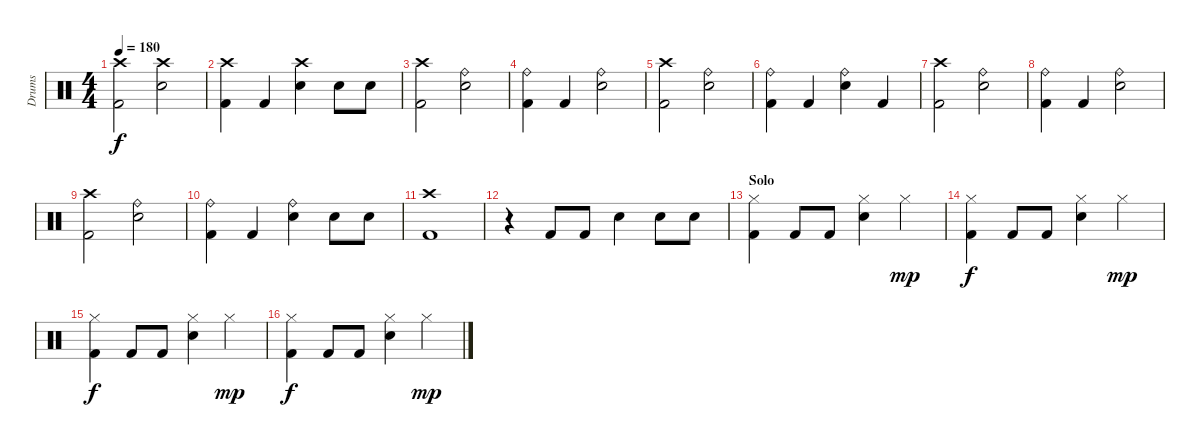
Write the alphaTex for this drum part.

\track ("Drums" "Drums") {instrument percussion}
\staff {score}
\articulation defaults
\ts (4 4)
\tempo 180
\clef neutral
\ks c
("Crash high (hit)" "Kick (hit) 2").2{dy f} ("Crash high (hit)" "Snare (hit) 2").2 |
("Crash high (hit)" "Kick (hit) 2").4 "Kick (hit) 2".4 ("Crash high (hit)" "Snare (hit) 2").4 "Snare (hit) 2".8 "Snare (hit) 2".8 |
("Crash high (hit)" "Kick (hit) 2").2 ("Ride (bell)" "Snare (hit) 2").2 |
("Ride (bell)" "Kick (hit) 2").4 "Kick (hit) 2".4 ("Ride (bell)" "Snare (hit) 2").2 |
("Crash high (hit)" "Kick (hit) 2").2 ("Ride (bell)" "Snare (hit) 2").2 |
("Ride (bell)" "Kick (hit) 2").4 "Kick (hit) 2".4 ("Ride (bell)" "Snare (hit) 2").4 "Kick (hit) 2".4 |
("Crash high (hit)" "Kick (hit) 2").2 ("Ride (bell)" "Snare (hit) 2").2 |
("Ride (bell)" "Kick (hit) 2").4 "Kick (hit) 2".4 ("Ride (bell)" "Snare (hit) 2").2 |
("Crash high (hit)" "Kick (hit) 2").2 ("Ride (bell)" "Snare (hit) 2").2 |
("Ride (bell)" "Kick (hit) 2").4 "Kick (hit) 2".4 ("Ride (bell)" "Snare (hit) 2").4 "Snare (hit) 2".8 "Snare (hit) 2".8 |
("Crash high (hit)" "Kick (hit) 2").1 |
r.4 "Kick (hit) 2".8 "Kick (hit) 2".8 "Snare (hit) 2".4 "Snare (hit) 2".8 "Snare (hit) 2".8 |
\section ("" "Solo")
("Hi-Hat (closed)" "Kick (hit) 2").4 "Kick (hit) 2".8 "Kick (hit) 2".8 ("Hi-Hat (closed)" "Snare (hit) 2").4 "Hi-Hat (closed)".4{dy mp} |
("Hi-Hat (closed)" "Kick (hit) 2").4{dy f} "Kick (hit) 2".8 "Kick (hit) 2".8 ("Hi-Hat (closed)" "Snare (hit) 2").4 "Hi-Hat (closed)".4{dy mp} |
("Hi-Hat (closed)" "Kick (hit) 2").4{dy f} "Kick (hit) 2".8 "Kick (hit) 2".8 ("Hi-Hat (closed)" "Snare (hit) 2").4 "Hi-Hat (closed)".4{dy mp} |
("Hi-Hat (closed)" "Kick (hit) 2").4{dy f} "Kick (hit) 2".8 "Kick (hit) 2".8 ("Hi-Hat (closed)" "Snare (hit) 2").4 "Hi-Hat (closed)".4{dy mp}
